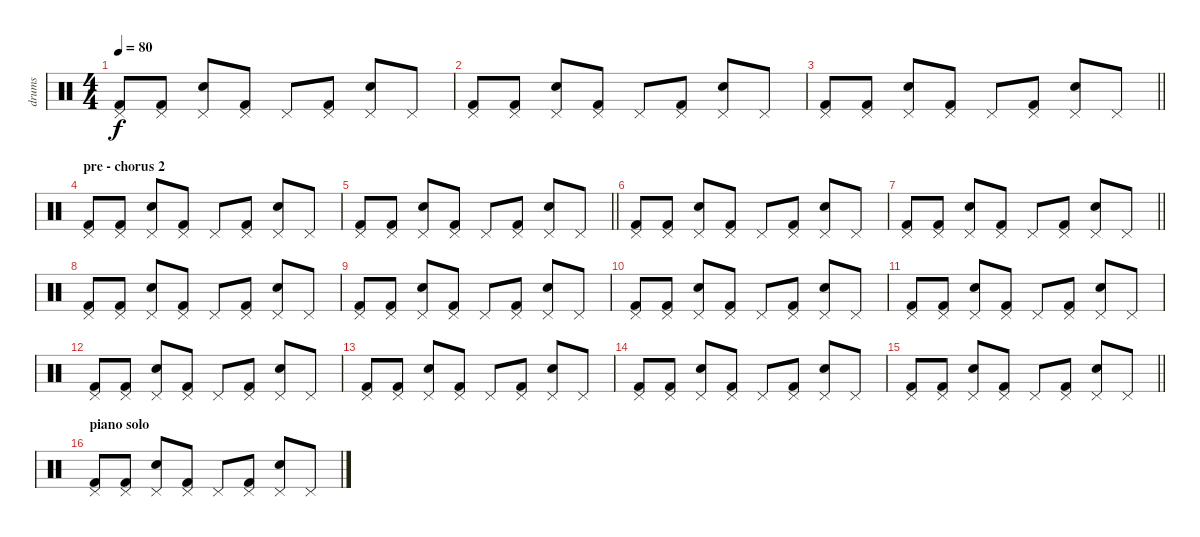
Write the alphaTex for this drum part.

\track ("drums" "drums") {instrument percussion}
\staff {score}
\articulation defaults
\ts (4 4)
\tempo 80
\clef neutral
\ks c
("Kick (hit) 2" "Pedal Hi-Hat (hit)").8{dy f} ("Kick (hit) 2" "Pedal Hi-Hat (hit)").8 ("Electric Snare (hit)" "Pedal Hi-Hat (hit)").8 ("Kick (hit) 2" "Pedal Hi-Hat (hit)").8 "Pedal Hi-Hat (hit)".8 ("Kick (hit) 2" "Pedal Hi-Hat (hit)").8 ("Electric Snare (hit)" "Pedal Hi-Hat (hit)").8 "Pedal Hi-Hat (hit)".8 |
("Kick (hit) 2" "Pedal Hi-Hat (hit)").8 ("Kick (hit) 2" "Pedal Hi-Hat (hit)").8 ("Electric Snare (hit)" "Pedal Hi-Hat (hit)").8 ("Kick (hit) 2" "Pedal Hi-Hat (hit)").8 "Pedal Hi-Hat (hit)".8 ("Kick (hit) 2" "Pedal Hi-Hat (hit)").8 ("Electric Snare (hit)" "Pedal Hi-Hat (hit)").8 "Pedal Hi-Hat (hit)".8 |
\barLineRight lightlight
("Kick (hit) 2" "Pedal Hi-Hat (hit)").8 ("Kick (hit) 2" "Pedal Hi-Hat (hit)").8 ("Electric Snare (hit)" "Pedal Hi-Hat (hit)").8 ("Kick (hit) 2" "Pedal Hi-Hat (hit)").8 "Pedal Hi-Hat (hit)".8 ("Kick (hit) 2" "Pedal Hi-Hat (hit)").8 ("Electric Snare (hit)" "Pedal Hi-Hat (hit)").8 "Pedal Hi-Hat (hit)".8 |
\section ("" "pre - chorus 2")
("Kick (hit) 2" "Pedal Hi-Hat (hit)").8 ("Kick (hit) 2" "Pedal Hi-Hat (hit)").8 ("Electric Snare (hit)" "Pedal Hi-Hat (hit)").8 ("Kick (hit) 2" "Pedal Hi-Hat (hit)").8 "Pedal Hi-Hat (hit)".8 ("Kick (hit) 2" "Pedal Hi-Hat (hit)").8 ("Electric Snare (hit)" "Pedal Hi-Hat (hit)").8 "Pedal Hi-Hat (hit)".8 |
\barLineRight lightlight
("Kick (hit) 2" "Pedal Hi-Hat (hit)").8 ("Kick (hit) 2" "Pedal Hi-Hat (hit)").8 ("Electric Snare (hit)" "Pedal Hi-Hat (hit)").8 ("Kick (hit) 2" "Pedal Hi-Hat (hit)").8 "Pedal Hi-Hat (hit)".8 ("Kick (hit) 2" "Pedal Hi-Hat (hit)").8 ("Electric Snare (hit)" "Pedal Hi-Hat (hit)").8 "Pedal Hi-Hat (hit)".8 |
("Kick (hit) 2" "Pedal Hi-Hat (hit)").8 ("Kick (hit) 2" "Pedal Hi-Hat (hit)").8 ("Electric Snare (hit)" "Pedal Hi-Hat (hit)").8 ("Kick (hit) 2" "Pedal Hi-Hat (hit)").8 "Pedal Hi-Hat (hit)".8 ("Kick (hit) 2" "Pedal Hi-Hat (hit)").8 ("Electric Snare (hit)" "Pedal Hi-Hat (hit)").8 "Pedal Hi-Hat (hit)".8 |
\barLineRight lightlight
("Kick (hit) 2" "Pedal Hi-Hat (hit)").8 ("Kick (hit) 2" "Pedal Hi-Hat (hit)").8 ("Electric Snare (hit)" "Pedal Hi-Hat (hit)").8 ("Kick (hit) 2" "Pedal Hi-Hat (hit)").8 "Pedal Hi-Hat (hit)".8 ("Kick (hit) 2" "Pedal Hi-Hat (hit)").8 ("Electric Snare (hit)" "Pedal Hi-Hat (hit)").8 "Pedal Hi-Hat (hit)".8 |
("Kick (hit) 2" "Pedal Hi-Hat (hit)").8 ("Kick (hit) 2" "Pedal Hi-Hat (hit)").8 ("Electric Snare (hit)" "Pedal Hi-Hat (hit)").8 ("Kick (hit) 2" "Pedal Hi-Hat (hit)").8 "Pedal Hi-Hat (hit)".8 ("Kick (hit) 2" "Pedal Hi-Hat (hit)").8 ("Electric Snare (hit)" "Pedal Hi-Hat (hit)").8 "Pedal Hi-Hat (hit)".8 |
("Kick (hit) 2" "Pedal Hi-Hat (hit)").8 ("Kick (hit) 2" "Pedal Hi-Hat (hit)").8 ("Electric Snare (hit)" "Pedal Hi-Hat (hit)").8 ("Kick (hit) 2" "Pedal Hi-Hat (hit)").8 "Pedal Hi-Hat (hit)".8 ("Kick (hit) 2" "Pedal Hi-Hat (hit)").8 ("Electric Snare (hit)" "Pedal Hi-Hat (hit)").8 "Pedal Hi-Hat (hit)".8 |
("Kick (hit) 2" "Pedal Hi-Hat (hit)").8 ("Kick (hit) 2" "Pedal Hi-Hat (hit)").8 ("Electric Snare (hit)" "Pedal Hi-Hat (hit)").8 ("Kick (hit) 2" "Pedal Hi-Hat (hit)").8 "Pedal Hi-Hat (hit)".8 ("Kick (hit) 2" "Pedal Hi-Hat (hit)").8 ("Electric Snare (hit)" "Pedal Hi-Hat (hit)").8 "Pedal Hi-Hat (hit)".8 |
("Kick (hit) 2" "Pedal Hi-Hat (hit)").8 ("Kick (hit) 2" "Pedal Hi-Hat (hit)").8 ("Electric Snare (hit)" "Pedal Hi-Hat (hit)").8 ("Kick (hit) 2" "Pedal Hi-Hat (hit)").8 "Pedal Hi-Hat (hit)".8 ("Kick (hit) 2" "Pedal Hi-Hat (hit)").8 ("Electric Snare (hit)" "Pedal Hi-Hat (hit)").8 "Pedal Hi-Hat (hit)".8 |
("Kick (hit) 2" "Pedal Hi-Hat (hit)").8 ("Kick (hit) 2" "Pedal Hi-Hat (hit)").8 ("Electric Snare (hit)" "Pedal Hi-Hat (hit)").8 ("Kick (hit) 2" "Pedal Hi-Hat (hit)").8 "Pedal Hi-Hat (hit)".8 ("Kick (hit) 2" "Pedal Hi-Hat (hit)").8 ("Electric Snare (hit)" "Pedal Hi-Hat (hit)").8 "Pedal Hi-Hat (hit)".8 |
("Kick (hit) 2" "Pedal Hi-Hat (hit)").8 ("Kick (hit) 2" "Pedal Hi-Hat (hit)").8 ("Electric Snare (hit)" "Pedal Hi-Hat (hit)").8 ("Kick (hit) 2" "Pedal Hi-Hat (hit)").8 "Pedal Hi-Hat (hit)".8 ("Kick (hit) 2" "Pedal Hi-Hat (hit)").8 ("Electric Snare (hit)" "Pedal Hi-Hat (hit)").8 "Pedal Hi-Hat (hit)".8 |
("Kick (hit) 2" "Pedal Hi-Hat (hit)").8 ("Kick (hit) 2" "Pedal Hi-Hat (hit)").8 ("Electric Snare (hit)" "Pedal Hi-Hat (hit)").8 ("Kick (hit) 2" "Pedal Hi-Hat (hit)").8 "Pedal Hi-Hat (hit)".8 ("Kick (hit) 2" "Pedal Hi-Hat (hit)").8 ("Electric Snare (hit)" "Pedal Hi-Hat (hit)").8 "Pedal Hi-Hat (hit)".8 |
\barLineRight lightlight
("Kick (hit) 2" "Pedal Hi-Hat (hit)").8 ("Kick (hit) 2" "Pedal Hi-Hat (hit)").8 ("Electric Snare (hit)" "Pedal Hi-Hat (hit)").8 ("Kick (hit) 2" "Pedal Hi-Hat (hit)").8 "Pedal Hi-Hat (hit)".8 ("Kick (hit) 2" "Pedal Hi-Hat (hit)").8 ("Electric Snare (hit)" "Pedal Hi-Hat (hit)").8 "Pedal Hi-Hat (hit)".8 |
\section ("" "piano solo")
("Kick (hit) 2" "Pedal Hi-Hat (hit)").8 ("Kick (hit) 2" "Pedal Hi-Hat (hit)").8 ("Electric Snare (hit)" "Pedal Hi-Hat (hit)").8 ("Kick (hit) 2" "Pedal Hi-Hat (hit)").8 "Pedal Hi-Hat (hit)".8 ("Kick (hit) 2" "Pedal Hi-Hat (hit)").8 ("Electric Snare (hit)" "Pedal Hi-Hat (hit)").8 "Pedal Hi-Hat (hit)".8
